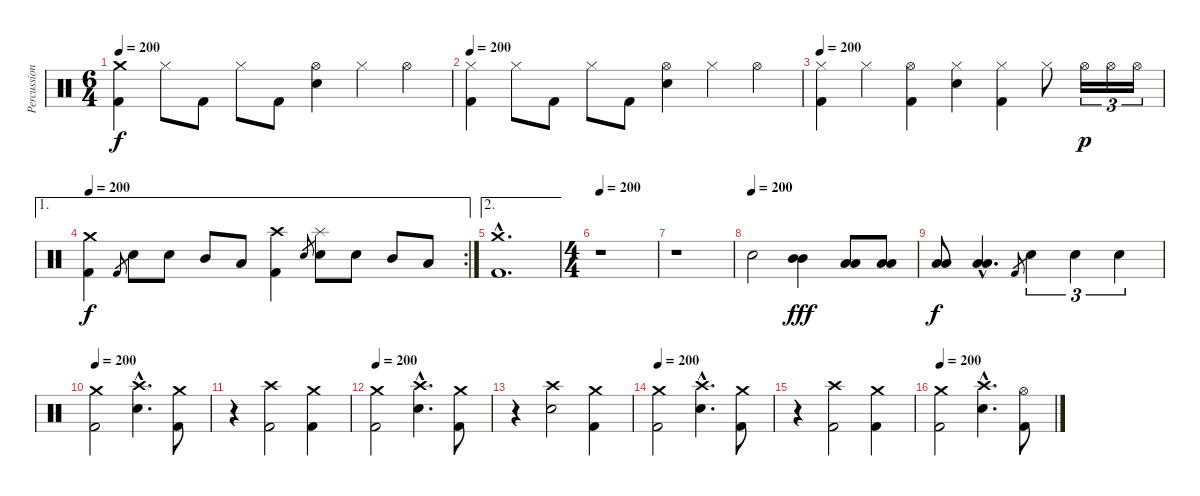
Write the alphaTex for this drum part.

\track ("Percussions" "Percussion") {instrument percussion}
\staff {score}
\articulation defaults
\ts (6 4)
\tempo 200
\clef neutral
\ks c
("Crash medium (hit)" "Kick (hit) 2").4{dy f} "Hi-Hat (closed)".8 "Kick (hit) 2".8 "Hi-Hat (closed)".8 "Kick (hit) 2".8 ("Hi-Hat (open)" "Electric Snare (hit)").4 "Hi-Hat (closed)".4 "Hi-Hat (open)".4 |
\tempo 200
("Hi-Hat (closed)" "Kick (hit) 2").4 "Hi-Hat (closed)".8 "Kick (hit) 2".8 "Hi-Hat (closed)".8 "Kick (hit) 2".8 ("Hi-Hat (open)" "Electric Snare (hit)").4 "Hi-Hat (closed)".4 "Hi-Hat (open)".4 |
\tempo 200
("Hi-Hat (closed)" "Kick (hit) 2").4 "Hi-Hat (closed)".4 ("Hi-Hat (open)" "Kick (hit) 2").4 ("Hi-Hat (closed)" "Electric Snare (hit)").4 ("Hi-Hat (closed)" "Kick (hit) 2").4 "Hi-Hat (closed)".8 "Hi-Hat (open)".16{tu (3 2) dy p} "Hi-Hat (open)".16{tu (3 2)} "Hi-Hat (open)".16{tu (3 2)} |
\ae 1
\rc 2
\tempo 200
("Crash medium (hit)" "Kick (hit) 2").4{dy f} "Kick (hit) 2".8{gr} "Electric Snare (hit)".8 "Electric Snare (hit)".8 "Mid Tom (hit)".8 "Low Tom (hit)".8 ("Crash high (hit)" "Kick (hit) 2").4 "Electric Snare (hit)".8{gr} ("Splash (hit)" "Electric Snare (hit)").8 "Electric Snare (hit)".8 "Mid Tom (hit)".8 "Low Tom (hit)".8 |
\ae 2
("Crash medium (hit)"{hac} "Kick (hit) 2"{hac}).1{d} |
\ts (4 4)
\tempo 200
r.1 |
r.1 |
\tempo (200)
"Electric Snare (hit)".2 ("Mid Tom (hit)" "Mid Tom (hit)").4{dy fff} ("Low Tom (hit)" "Low Tom (hit)").8 ("Low Tom (hit)" "Low Tom (hit)").8 |
("Low Tom (hit)" "Low Tom (hit)").8{dy f} ("Low Tom (hit)"{hac} "Low Tom (hit)"{hac}).4{d} "Kick (hit) 2".8{gr} "Electric Snare (hit)".4{tu (3 2)} "Electric Snare (hit)".4{tu (3 2)} "Electric Snare (hit)".4{tu (3 2)} |
\tempo 200
("Crash medium (hit)" "Kick (hit) 2").2 ("Crash high (hit)"{hac} "Electric Snare (hit)"{hac}).4{d} ("Crash medium (hit)" "Kick (hit) 2").8 |
r.4 ("Crash high (hit)" "Kick (hit) 2").2 ("Crash medium (hit)" "Kick (hit) 2").4 |
\tempo 200
("Crash medium (hit)" "Kick (hit) 2").2 ("Crash high (hit)"{hac} "Electric Snare (hit)"{hac}).4{d} ("Crash medium (hit)" "Kick (hit) 2").8 |
r.4 ("Crash high (hit)" "Electric Snare (hit)").2 ("Crash medium (hit)" "Kick (hit) 2").4 |
\tempo 200
("Crash medium (hit)" "Kick (hit) 2").2 ("Crash high (hit)"{hac} "Electric Snare (hit)"{hac}).4{d} ("Crash medium (hit)" "Kick (hit) 2").8 |
r.4 ("Crash high (hit)" "Kick (hit) 2").2 ("Crash medium (hit)" "Kick (hit) 2").4 |
\tempo 200
("Crash medium (hit)" "Kick (hit) 2").2 ("Crash high (hit)"{hac} "Electric Snare (hit)"{hac}).4{d} ("Hi-Hat (open)" "Kick (hit) 2").8
